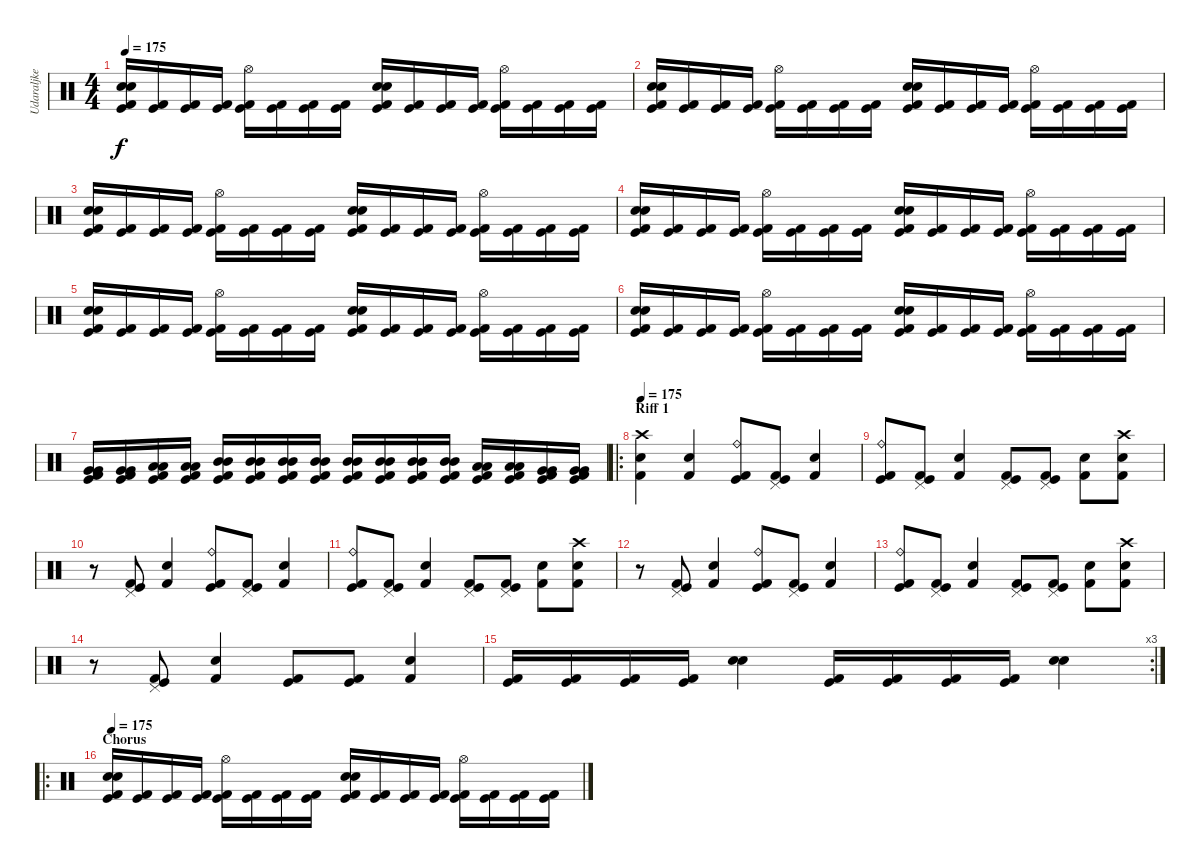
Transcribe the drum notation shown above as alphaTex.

\track ("Udaraljke" "Udaraljke") {instrument percussion}
\staff {score}
\articulation defaults
\ts (4 4)
\tempo 175
\clef neutral
\ks c
("Electric Snare (hit)" "Snare (hit) 2" "Kick (hit) 2" "Kick (hit)").16{dy f} ("Kick (hit) 2" "Kick (hit)").16 ("Kick (hit) 2" "Kick (hit)").16 ("Kick (hit) 2" "Kick (hit)").16 ("Hi-Hat (open)" "Kick (hit) 2" "Kick (hit)").16 ("Kick (hit) 2" "Kick (hit)").16 ("Kick (hit) 2" "Kick (hit)").16 ("Kick (hit) 2" "Kick (hit)").16 ("Electric Snare (hit)" "Snare (hit) 2" "Kick (hit) 2" "Kick (hit)").16 ("Kick (hit) 2" "Kick (hit)").16 ("Kick (hit) 2" "Kick (hit)").16 ("Kick (hit) 2" "Kick (hit)").16 ("Hi-Hat (open)" "Kick (hit) 2" "Kick (hit)").16 ("Kick (hit) 2" "Kick (hit)").16 ("Kick (hit) 2" "Kick (hit)").16 ("Kick (hit) 2" "Kick (hit)").16 |
("Electric Snare (hit)" "Snare (hit) 2" "Kick (hit) 2" "Kick (hit)").16 ("Kick (hit) 2" "Kick (hit)").16 ("Kick (hit) 2" "Kick (hit)").16 ("Kick (hit) 2" "Kick (hit)").16 ("Hi-Hat (open)" "Kick (hit) 2" "Kick (hit)").16 ("Kick (hit) 2" "Kick (hit)").16 ("Kick (hit) 2" "Kick (hit)").16 ("Kick (hit) 2" "Kick (hit)").16 ("Electric Snare (hit)" "Snare (hit) 2" "Kick (hit) 2" "Kick (hit)").16 ("Kick (hit) 2" "Kick (hit)").16 ("Kick (hit) 2" "Kick (hit)").16 ("Kick (hit) 2" "Kick (hit)").16 ("Hi-Hat (open)" "Kick (hit) 2" "Kick (hit)").16 ("Kick (hit) 2" "Kick (hit)").16 ("Kick (hit) 2" "Kick (hit)").16 ("Kick (hit) 2" "Kick (hit)").16 |
("Electric Snare (hit)" "Snare (hit) 2" "Kick (hit) 2" "Kick (hit)").16 ("Kick (hit) 2" "Kick (hit)").16 ("Kick (hit) 2" "Kick (hit)").16 ("Kick (hit) 2" "Kick (hit)").16 ("Hi-Hat (open)" "Kick (hit) 2" "Kick (hit)").16 ("Kick (hit) 2" "Kick (hit)").16 ("Kick (hit) 2" "Kick (hit)").16 ("Kick (hit) 2" "Kick (hit)").16 ("Electric Snare (hit)" "Snare (hit) 2" "Kick (hit) 2" "Kick (hit)").16 ("Kick (hit) 2" "Kick (hit)").16 ("Kick (hit) 2" "Kick (hit)").16 ("Kick (hit) 2" "Kick (hit)").16 ("Hi-Hat (open)" "Kick (hit) 2" "Kick (hit)").16 ("Kick (hit) 2" "Kick (hit)").16 ("Kick (hit) 2" "Kick (hit)").16 ("Kick (hit) 2" "Kick (hit)").16 |
("Electric Snare (hit)" "Snare (hit) 2" "Kick (hit) 2" "Kick (hit)").16 ("Kick (hit) 2" "Kick (hit)").16 ("Kick (hit) 2" "Kick (hit)").16 ("Kick (hit) 2" "Kick (hit)").16 ("Hi-Hat (open)" "Kick (hit) 2" "Kick (hit)").16 ("Kick (hit) 2" "Kick (hit)").16 ("Kick (hit) 2" "Kick (hit)").16 ("Kick (hit) 2" "Kick (hit)").16 ("Electric Snare (hit)" "Snare (hit) 2" "Kick (hit) 2" "Kick (hit)").16 ("Kick (hit) 2" "Kick (hit)").16 ("Kick (hit) 2" "Kick (hit)").16 ("Kick (hit) 2" "Kick (hit)").16 ("Hi-Hat (open)" "Kick (hit) 2" "Kick (hit)").16 ("Kick (hit) 2" "Kick (hit)").16 ("Kick (hit) 2" "Kick (hit)").16 ("Kick (hit) 2" "Kick (hit)").16 |
("Electric Snare (hit)" "Snare (hit) 2" "Kick (hit) 2" "Kick (hit)").16 ("Kick (hit) 2" "Kick (hit)").16 ("Kick (hit) 2" "Kick (hit)").16 ("Kick (hit) 2" "Kick (hit)").16 ("Hi-Hat (open)" "Kick (hit) 2" "Kick (hit)").16 ("Kick (hit) 2" "Kick (hit)").16 ("Kick (hit) 2" "Kick (hit)").16 ("Kick (hit) 2" "Kick (hit)").16 ("Electric Snare (hit)" "Snare (hit) 2" "Kick (hit) 2" "Kick (hit)").16 ("Kick (hit) 2" "Kick (hit)").16 ("Kick (hit) 2" "Kick (hit)").16 ("Kick (hit) 2" "Kick (hit)").16 ("Hi-Hat (open)" "Kick (hit) 2" "Kick (hit)").16 ("Kick (hit) 2" "Kick (hit)").16 ("Kick (hit) 2" "Kick (hit)").16 ("Kick (hit) 2" "Kick (hit)").16 |
("Electric Snare (hit)" "Snare (hit) 2" "Kick (hit) 2" "Kick (hit)").16 ("Kick (hit) 2" "Kick (hit)").16 ("Kick (hit) 2" "Kick (hit)").16 ("Kick (hit) 2" "Kick (hit)").16 ("Hi-Hat (open)" "Kick (hit) 2" "Kick (hit)").16 ("Kick (hit) 2" "Kick (hit)").16 ("Kick (hit) 2" "Kick (hit)").16 ("Kick (hit) 2" "Kick (hit)").16 ("Electric Snare (hit)" "Snare (hit) 2" "Kick (hit) 2" "Kick (hit)").16 ("Kick (hit) 2" "Kick (hit)").16 ("Kick (hit) 2" "Kick (hit)").16 ("Kick (hit) 2" "Kick (hit)").16 ("Hi-Hat (open)" "Kick (hit) 2" "Kick (hit)").16 ("Kick (hit) 2" "Kick (hit)").16 ("Kick (hit) 2" "Kick (hit)").16 ("Kick (hit) 2" "Kick (hit)").16 |
("Very Low Tom (hit)" "Very Low Tom (hit)" "Kick (hit) 2" "Kick (hit)").16 ("Very Low Tom (hit)" "Very Low Tom (hit)" "Kick (hit) 2" "Kick (hit)").16 ("Low Tom (hit)" "Low Tom (hit)" "Kick (hit) 2" "Kick (hit)").16 ("Low Tom (hit)" "Low Tom (hit)" "Kick (hit) 2" "Kick (hit)").16 ("Mid Tom (hit)" "Mid Tom (hit)" "Kick (hit) 2" "Kick (hit)").16 ("Mid Tom (hit)" "Mid Tom (hit)" "Kick (hit) 2" "Kick (hit)").16 ("Mid Tom (hit)" "Mid Tom (hit)" "Kick (hit) 2" "Kick (hit)").16 ("Mid Tom (hit)" "Mid Tom (hit)" "Kick (hit) 2" "Kick (hit)").16 ("Mid Tom (hit)" "Mid Tom (hit)" "Kick (hit) 2" "Kick (hit)").16 ("Mid Tom (hit)" "Mid Tom (hit)" "Kick (hit) 2" "Kick (hit)").16 ("Mid Tom (hit)" "Mid Tom (hit)" "Kick (hit) 2" "Kick (hit)").16 ("Mid Tom (hit)" "Mid Tom (hit)" "Kick (hit) 2" "Kick (hit)").16 ("Low Tom (hit)" "Low Tom (hit)" "Kick (hit) 2" "Kick (hit)").16 ("Low Tom (hit)" "Low Tom (hit)" "Kick (hit) 2" "Kick (hit)").16 ("Very Low Tom (hit)" "Very Low Tom (hit)" "Kick (hit) 2" "Kick (hit)").16 ("Very Low Tom (hit)" "Very Low Tom (hit)" "Kick (hit) 2" "Kick (hit)").16 |
\ro
\section ("" "Riff 1")
\tempo 175
("Crash high (hit)" "Snare (hit) 2" "Kick (hit) 2").4 ("Electric Snare (hit)" "Kick (hit) 2").4 ("Ride (bell)" "Kick (hit) 2" "Kick (hit)").8 ("Pedal Hi-Hat (hit)" "Kick (hit) 2" "Kick (hit)").8 ("Electric Snare (hit)" "Kick (hit) 2").4 |
("Ride (bell)" "Kick (hit) 2" "Kick (hit)").8 ("Pedal Hi-Hat (hit)" "Kick (hit) 2" "Kick (hit)").8 ("Electric Snare (hit)" "Kick (hit) 2").4 ("Pedal Hi-Hat (hit)" "Kick (hit) 2" "Kick (hit)").8 ("Pedal Hi-Hat (hit)" "Kick (hit) 2" "Kick (hit)").8 ("Electric Snare (hit)" "Kick (hit) 2").8 ("Crash high (hit)" "Snare (hit) 2" "Kick (hit) 2").8 |
r.8 ("Pedal Hi-Hat (hit)" "Kick (hit) 2" "Kick (hit)").8 ("Electric Snare (hit)" "Kick (hit) 2").4 ("Ride (bell)" "Kick (hit) 2" "Kick (hit)").8 ("Pedal Hi-Hat (hit)" "Kick (hit) 2" "Kick (hit)").8 ("Electric Snare (hit)" "Kick (hit) 2").4 |
("Ride (bell)" "Kick (hit) 2" "Kick (hit)").8 ("Pedal Hi-Hat (hit)" "Kick (hit) 2" "Kick (hit)").8 ("Electric Snare (hit)" "Kick (hit) 2").4 ("Pedal Hi-Hat (hit)" "Kick (hit) 2" "Kick (hit)").8 ("Pedal Hi-Hat (hit)" "Kick (hit) 2" "Kick (hit)").8 ("Electric Snare (hit)" "Kick (hit) 2").8 ("Crash high (hit)" "Snare (hit) 2" "Kick (hit) 2").8 |
r.8 ("Pedal Hi-Hat (hit)" "Kick (hit) 2" "Kick (hit)").8 ("Electric Snare (hit)" "Kick (hit) 2").4 ("Ride (bell)" "Kick (hit) 2" "Kick (hit)").8 ("Pedal Hi-Hat (hit)" "Kick (hit) 2" "Kick (hit)").8 ("Electric Snare (hit)" "Kick (hit) 2").4 |
("Ride (bell)" "Kick (hit) 2" "Kick (hit)").8 ("Pedal Hi-Hat (hit)" "Kick (hit) 2" "Kick (hit)").8 ("Electric Snare (hit)" "Kick (hit) 2").4 ("Pedal Hi-Hat (hit)" "Kick (hit) 2" "Kick (hit)").8 ("Pedal Hi-Hat (hit)" "Kick (hit) 2" "Kick (hit)").8 ("Electric Snare (hit)" "Kick (hit) 2").8 ("Crash high (hit)" "Snare (hit) 2" "Kick (hit) 2").8 |
r.8 ("Pedal Hi-Hat (hit)" "Kick (hit) 2" "Kick (hit)").8 ("Electric Snare (hit)" "Kick (hit) 2").4 ("Kick (hit) 2" "Kick (hit)").8 ("Kick (hit) 2" "Kick (hit)").8 ("Electric Snare (hit)" "Kick (hit) 2").4 |
\rc 3
("Kick (hit) 2" "Kick (hit)").16 ("Kick (hit) 2" "Kick (hit)").16 ("Kick (hit) 2" "Kick (hit)").16 ("Kick (hit) 2" "Kick (hit)").16 ("Electric Snare (hit)" "Snare (hit) 2").4 ("Kick (hit) 2" "Kick (hit)").16 ("Kick (hit) 2" "Kick (hit)").16 ("Kick (hit) 2" "Kick (hit)").16 ("Kick (hit) 2" "Kick (hit)").16 ("Electric Snare (hit)" "Snare (hit) 2").4 |
\ro
\section ("" "Chorus")
\tempo 175
("Electric Snare (hit)" "Snare (hit) 2" "Kick (hit) 2" "Kick (hit)").16 ("Kick (hit) 2" "Kick (hit)").16 ("Kick (hit) 2" "Kick (hit)").16 ("Kick (hit) 2" "Kick (hit)").16 ("Hi-Hat (open)" "Kick (hit) 2" "Kick (hit)").16 ("Kick (hit) 2" "Kick (hit)").16 ("Kick (hit) 2" "Kick (hit)").16 ("Kick (hit) 2" "Kick (hit)").16 ("Electric Snare (hit)" "Snare (hit) 2" "Kick (hit) 2" "Kick (hit)").16 ("Kick (hit) 2" "Kick (hit)").16 ("Kick (hit) 2" "Kick (hit)").16 ("Kick (hit) 2" "Kick (hit)").16 ("Hi-Hat (open)" "Kick (hit) 2" "Kick (hit)").16 ("Kick (hit) 2" "Kick (hit)").16 ("Kick (hit) 2" "Kick (hit)").16 ("Kick (hit) 2" "Kick (hit)").16
